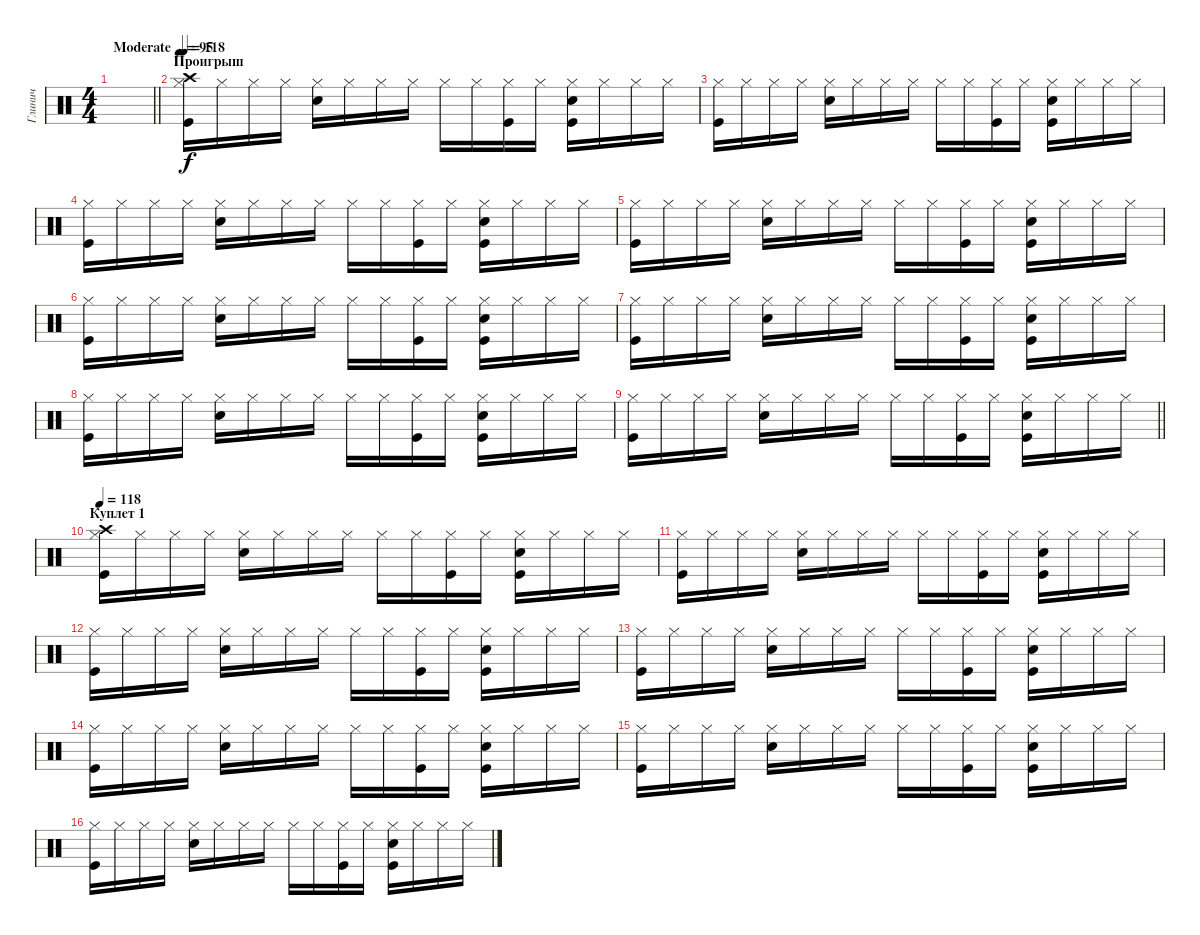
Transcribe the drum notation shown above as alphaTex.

\track ("Глинич" "Глинич") {instrument percussion}
\staff {score}
\articulation defaults
\ts (4 4)
\tempo (95 "Moderate")
\clef neutral
\barLineRight lightlight
\ks c
|
\section ("" "Проигрыш")
\tempo 118
("Hi-Hat (closed)" "Kick (hit)" "Crash high (hit)").16 "Hi-Hat (closed)".16 "Hi-Hat (closed)".16 "Hi-Hat (closed)".16 ("Hi-Hat (closed)" "Snare (hit) 2").16 "Hi-Hat (closed)".16 "Hi-Hat (closed)".16 "Hi-Hat (closed)".16 "Hi-Hat (closed)".16 "Hi-Hat (closed)".16 ("Hi-Hat (closed)" "Kick (hit)").16 "Hi-Hat (closed)".16 ("Hi-Hat (closed)" "Snare (hit) 2" "Kick (hit)").16 "Hi-Hat (closed)".16 "Hi-Hat (closed)".16 "Hi-Hat (closed)".16 |
("Hi-Hat (closed)" "Kick (hit)").16 "Hi-Hat (closed)".16 "Hi-Hat (closed)".16 "Hi-Hat (closed)".16 ("Hi-Hat (closed)" "Snare (hit) 2").16 "Hi-Hat (closed)".16 "Hi-Hat (closed)".16 "Hi-Hat (closed)".16 "Hi-Hat (closed)".16 "Hi-Hat (closed)".16 ("Hi-Hat (closed)" "Kick (hit)").16 "Hi-Hat (closed)".16 ("Hi-Hat (closed)" "Snare (hit) 2" "Kick (hit)").16 "Hi-Hat (closed)".16 "Hi-Hat (closed)".16 "Hi-Hat (closed)".16 |
("Hi-Hat (closed)" "Kick (hit)").16 "Hi-Hat (closed)".16 "Hi-Hat (closed)".16 "Hi-Hat (closed)".16 ("Hi-Hat (closed)" "Snare (hit) 2").16 "Hi-Hat (closed)".16 "Hi-Hat (closed)".16 "Hi-Hat (closed)".16 "Hi-Hat (closed)".16 "Hi-Hat (closed)".16 ("Hi-Hat (closed)" "Kick (hit)").16 "Hi-Hat (closed)".16 ("Hi-Hat (closed)" "Snare (hit) 2" "Kick (hit)").16 "Hi-Hat (closed)".16 "Hi-Hat (closed)".16 "Hi-Hat (closed)".16 |
("Hi-Hat (closed)" "Kick (hit)").16 "Hi-Hat (closed)".16 "Hi-Hat (closed)".16 "Hi-Hat (closed)".16 ("Hi-Hat (closed)" "Snare (hit) 2").16 "Hi-Hat (closed)".16 "Hi-Hat (closed)".16 "Hi-Hat (closed)".16 "Hi-Hat (closed)".16 "Hi-Hat (closed)".16 ("Hi-Hat (closed)" "Kick (hit)").16 "Hi-Hat (closed)".16 ("Hi-Hat (closed)" "Snare (hit) 2" "Kick (hit)").16 "Hi-Hat (closed)".16 "Hi-Hat (closed)".16 "Hi-Hat (closed)".16 |
("Hi-Hat (closed)" "Kick (hit)").16 "Hi-Hat (closed)".16 "Hi-Hat (closed)".16 "Hi-Hat (closed)".16 ("Hi-Hat (closed)" "Snare (hit) 2").16 "Hi-Hat (closed)".16 "Hi-Hat (closed)".16 "Hi-Hat (closed)".16 "Hi-Hat (closed)".16 "Hi-Hat (closed)".16 ("Hi-Hat (closed)" "Kick (hit)").16 "Hi-Hat (closed)".16 ("Hi-Hat (closed)" "Snare (hit) 2" "Kick (hit)").16 "Hi-Hat (closed)".16 "Hi-Hat (closed)".16 "Hi-Hat (closed)".16 |
("Hi-Hat (closed)" "Kick (hit)").16 "Hi-Hat (closed)".16 "Hi-Hat (closed)".16 "Hi-Hat (closed)".16 ("Hi-Hat (closed)" "Snare (hit) 2").16 "Hi-Hat (closed)".16 "Hi-Hat (closed)".16 "Hi-Hat (closed)".16 "Hi-Hat (closed)".16 "Hi-Hat (closed)".16 ("Hi-Hat (closed)" "Kick (hit)").16 "Hi-Hat (closed)".16 ("Hi-Hat (closed)" "Snare (hit) 2" "Kick (hit)").16 "Hi-Hat (closed)".16 "Hi-Hat (closed)".16 "Hi-Hat (closed)".16 |
("Hi-Hat (closed)" "Kick (hit)").16 "Hi-Hat (closed)".16 "Hi-Hat (closed)".16 "Hi-Hat (closed)".16 ("Hi-Hat (closed)" "Snare (hit) 2").16 "Hi-Hat (closed)".16 "Hi-Hat (closed)".16 "Hi-Hat (closed)".16 "Hi-Hat (closed)".16 "Hi-Hat (closed)".16 ("Hi-Hat (closed)" "Kick (hit)").16 "Hi-Hat (closed)".16 ("Hi-Hat (closed)" "Snare (hit) 2" "Kick (hit)").16 "Hi-Hat (closed)".16 "Hi-Hat (closed)".16 "Hi-Hat (closed)".16 |
\barLineRight lightlight
("Hi-Hat (closed)" "Kick (hit)").16 "Hi-Hat (closed)".16 "Hi-Hat (closed)".16 "Hi-Hat (closed)".16 ("Hi-Hat (closed)" "Snare (hit) 2").16 "Hi-Hat (closed)".16 "Hi-Hat (closed)".16 "Hi-Hat (closed)".16 "Hi-Hat (closed)".16 "Hi-Hat (closed)".16 ("Hi-Hat (closed)" "Kick (hit)").16 "Hi-Hat (closed)".16 ("Hi-Hat (closed)" "Snare (hit) 2" "Kick (hit)").16 "Hi-Hat (closed)".16 "Hi-Hat (closed)".16 "Hi-Hat (closed)".16 |
\section ("" "Куплет 1")
\tempo 118
("Hi-Hat (closed)" "Kick (hit)" "Crash high (hit)").16 "Hi-Hat (closed)".16 "Hi-Hat (closed)".16 "Hi-Hat (closed)".16 ("Hi-Hat (closed)" "Snare (hit) 2").16 "Hi-Hat (closed)".16 "Hi-Hat (closed)".16 "Hi-Hat (closed)".16 "Hi-Hat (closed)".16 "Hi-Hat (closed)".16 ("Hi-Hat (closed)" "Kick (hit)").16 "Hi-Hat (closed)".16 ("Hi-Hat (closed)" "Snare (hit) 2" "Kick (hit)").16 "Hi-Hat (closed)".16 "Hi-Hat (closed)".16 "Hi-Hat (closed)".16 |
("Hi-Hat (closed)" "Kick (hit)").16 "Hi-Hat (closed)".16 "Hi-Hat (closed)".16 "Hi-Hat (closed)".16 ("Hi-Hat (closed)" "Snare (hit) 2").16 "Hi-Hat (closed)".16 "Hi-Hat (closed)".16 "Hi-Hat (closed)".16 "Hi-Hat (closed)".16 "Hi-Hat (closed)".16 ("Hi-Hat (closed)" "Kick (hit)").16 "Hi-Hat (closed)".16 ("Hi-Hat (closed)" "Snare (hit) 2" "Kick (hit)").16 "Hi-Hat (closed)".16 "Hi-Hat (closed)".16 "Hi-Hat (closed)".16 |
("Hi-Hat (closed)" "Kick (hit)").16 "Hi-Hat (closed)".16 "Hi-Hat (closed)".16 "Hi-Hat (closed)".16 ("Hi-Hat (closed)" "Snare (hit) 2").16 "Hi-Hat (closed)".16 "Hi-Hat (closed)".16 "Hi-Hat (closed)".16 "Hi-Hat (closed)".16 "Hi-Hat (closed)".16 ("Hi-Hat (closed)" "Kick (hit)").16 "Hi-Hat (closed)".16 ("Hi-Hat (closed)" "Snare (hit) 2" "Kick (hit)").16 "Hi-Hat (closed)".16 "Hi-Hat (closed)".16 "Hi-Hat (closed)".16 |
("Hi-Hat (closed)" "Kick (hit)").16 "Hi-Hat (closed)".16 "Hi-Hat (closed)".16 "Hi-Hat (closed)".16 ("Hi-Hat (closed)" "Snare (hit) 2").16 "Hi-Hat (closed)".16 "Hi-Hat (closed)".16 "Hi-Hat (closed)".16 "Hi-Hat (closed)".16 "Hi-Hat (closed)".16 ("Hi-Hat (closed)" "Kick (hit)").16 "Hi-Hat (closed)".16 ("Hi-Hat (closed)" "Snare (hit) 2" "Kick (hit)").16 "Hi-Hat (closed)".16 "Hi-Hat (closed)".16 "Hi-Hat (closed)".16 |
("Hi-Hat (closed)" "Kick (hit)").16 "Hi-Hat (closed)".16 "Hi-Hat (closed)".16 "Hi-Hat (closed)".16 ("Hi-Hat (closed)" "Snare (hit) 2").16 "Hi-Hat (closed)".16 "Hi-Hat (closed)".16 "Hi-Hat (closed)".16 "Hi-Hat (closed)".16 "Hi-Hat (closed)".16 ("Hi-Hat (closed)" "Kick (hit)").16 "Hi-Hat (closed)".16 ("Hi-Hat (closed)" "Snare (hit) 2" "Kick (hit)").16 "Hi-Hat (closed)".16 "Hi-Hat (closed)".16 "Hi-Hat (closed)".16 |
("Hi-Hat (closed)" "Kick (hit)").16 "Hi-Hat (closed)".16 "Hi-Hat (closed)".16 "Hi-Hat (closed)".16 ("Hi-Hat (closed)" "Snare (hit) 2").16 "Hi-Hat (closed)".16 "Hi-Hat (closed)".16 "Hi-Hat (closed)".16 "Hi-Hat (closed)".16 "Hi-Hat (closed)".16 ("Hi-Hat (closed)" "Kick (hit)").16 "Hi-Hat (closed)".16 ("Hi-Hat (closed)" "Snare (hit) 2" "Kick (hit)").16 "Hi-Hat (closed)".16 "Hi-Hat (closed)".16 "Hi-Hat (closed)".16 |
("Hi-Hat (closed)" "Kick (hit)").16 "Hi-Hat (closed)".16 "Hi-Hat (closed)".16 "Hi-Hat (closed)".16 ("Hi-Hat (closed)" "Snare (hit) 2").16 "Hi-Hat (closed)".16 "Hi-Hat (closed)".16 "Hi-Hat (closed)".16 "Hi-Hat (closed)".16 "Hi-Hat (closed)".16 ("Hi-Hat (closed)" "Kick (hit)").16 "Hi-Hat (closed)".16 ("Hi-Hat (closed)" "Snare (hit) 2" "Kick (hit)").16 "Hi-Hat (closed)".16 "Hi-Hat (closed)".16 "Hi-Hat (closed)".16
